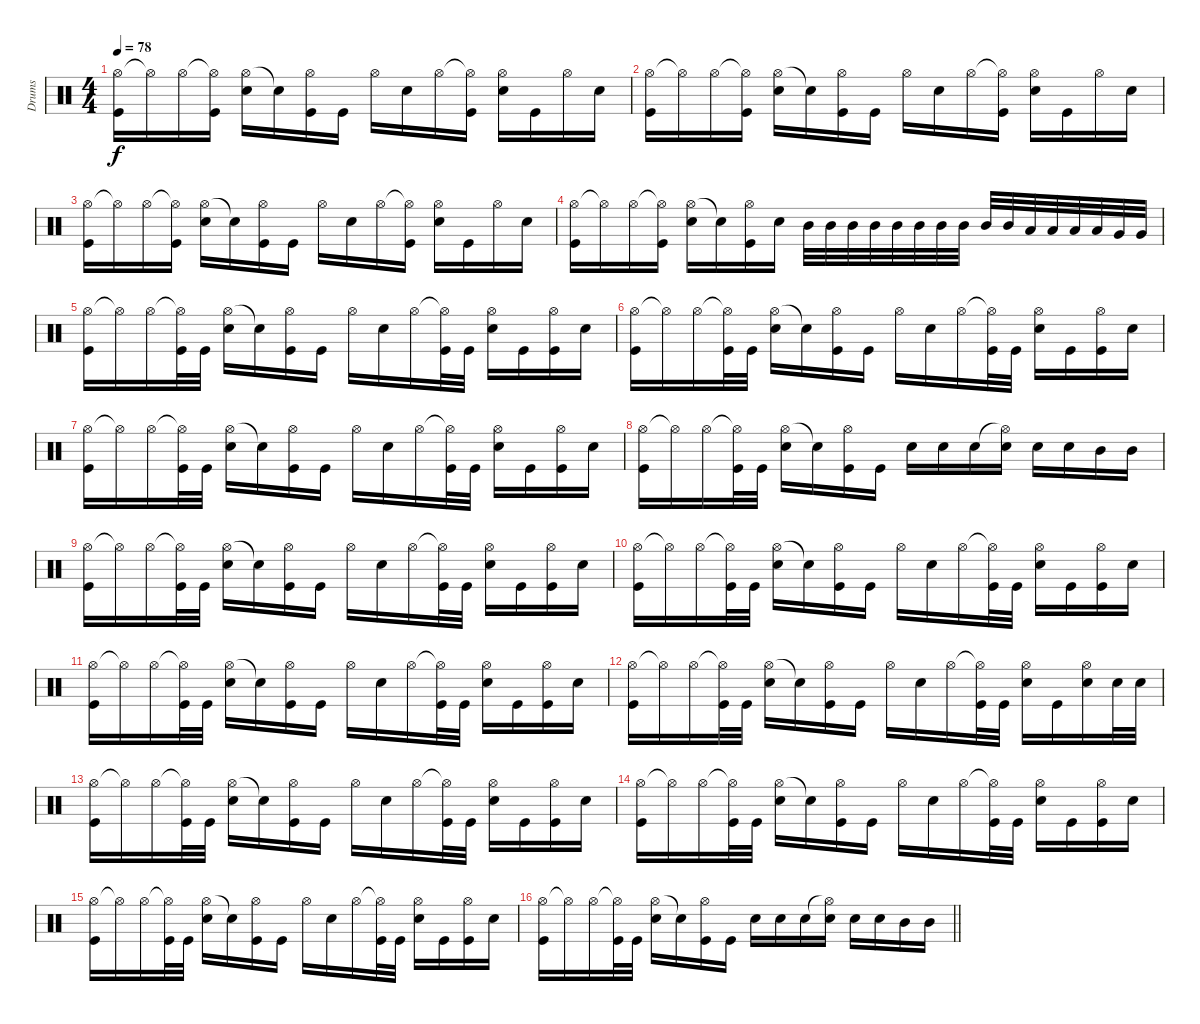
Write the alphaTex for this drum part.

\track ("Drums" "Drums") {instrument percussion}
\staff {score}
\articulation defaults
\ts (4 4)
\tempo 78
\clef neutral
\ks c
("Hi-Hat (open)" "Kick (hit)").16{dy f} "Hi-Hat (open)"{t}.16 "Hi-Hat (open)".16 ("Hi-Hat (open)"{t} "Kick (hit)").16 ("Hi-Hat (open)" "Electric Snare (hit)").16 "Snare (hit)"{t}.16 ("Hi-Hat (open)" "Kick (hit)").16 "Kick (hit)".16 "Hi-Hat (open)".16 "Electric Snare (hit)".16 "Hi-Hat (open)".16 ("Hi-Hat (open)"{t} "Kick (hit)").16 ("Hi-Hat (open)" "Electric Snare (hit)").16 "Kick (hit)".16 "Hi-Hat (open)".16 "Electric Snare (hit)".16 |
("Hi-Hat (open)" "Kick (hit)").16 "Hi-Hat (open)"{t}.16 "Hi-Hat (open)".16 ("Hi-Hat (open)"{t} "Kick (hit)").16 ("Hi-Hat (open)" "Electric Snare (hit)").16 "Snare (hit)"{t}.16 ("Hi-Hat (open)" "Kick (hit)").16 "Kick (hit)".16 "Hi-Hat (open)".16 "Electric Snare (hit)".16 "Hi-Hat (open)".16 ("Hi-Hat (open)"{t} "Kick (hit)").16 ("Hi-Hat (open)" "Electric Snare (hit)").16 "Kick (hit)".16 "Hi-Hat (open)".16 "Electric Snare (hit)".16 |
("Hi-Hat (open)" "Kick (hit)").16 "Hi-Hat (open)"{t}.16 "Hi-Hat (open)".16 ("Hi-Hat (open)"{t} "Kick (hit)").16 ("Hi-Hat (open)" "Electric Snare (hit)").16 "Snare (hit)"{t}.16 ("Hi-Hat (open)" "Kick (hit)").16 "Kick (hit)".16 "Hi-Hat (open)".16 "Electric Snare (hit)".16 "Hi-Hat (open)".16 ("Hi-Hat (open)"{t} "Kick (hit)").16 ("Hi-Hat (open)" "Electric Snare (hit)").16 "Kick (hit)".16 "Hi-Hat (open)".16 "Electric Snare (hit)".16 |
("Hi-Hat (open)" "Kick (hit)").16 "Hi-Hat (open)"{t}.16 "Hi-Hat (open)".16 ("Hi-Hat (open)"{t} "Kick (hit)").16 ("Hi-Hat (open)" "Electric Snare (hit)").16 "Snare (hit)"{t}.16 ("Hi-Hat (open)" "Kick (hit)").16 "Electric Snare (hit)".16 "Mid Tom (hit)".32 "Mid Tom (hit)".32 "Mid Tom (hit)".32 "Mid Tom (hit)".32 "Mid Tom (hit)".32 "Mid Tom (hit)".32 "Mid Tom (hit)".32 "Mid Tom (hit)".32 "Mid Tom (hit)".32 "Mid Tom (hit)".32 "Low Tom (hit)".32 "Low Tom (hit)".32 "Low Tom (hit)".32 "Low Tom (hit)".32 "Very Low Tom (hit)".32 "Very Low Tom (hit)".32 |
("Hi-Hat (open)" "Kick (hit)").16 "Hi-Hat (open)"{t}.16 "Hi-Hat (open)".16 ("Hi-Hat (open)"{t} "Kick (hit)").32 "Kick (hit)".32 ("Hi-Hat (open)" "Electric Snare (hit)").16 "Snare (hit)"{t}.16 ("Hi-Hat (open)" "Kick (hit)").16 "Kick (hit)".16 "Hi-Hat (open)".16 "Electric Snare (hit)".16 "Hi-Hat (open)".16 ("Hi-Hat (open)"{t} "Kick (hit)").32 "Kick (hit)".32 ("Hi-Hat (open)" "Electric Snare (hit)").16 "Kick (hit)".16 ("Hi-Hat (open)" "Kick (hit)").16 "Electric Snare (hit)".16 |
("Hi-Hat (open)" "Kick (hit)").16 "Hi-Hat (open)"{t}.16 "Hi-Hat (open)".16 ("Hi-Hat (open)"{t} "Kick (hit)").32 "Kick (hit)".32 ("Hi-Hat (open)" "Electric Snare (hit)").16 "Snare (hit)"{t}.16 ("Hi-Hat (open)" "Kick (hit)").16 "Kick (hit)".16 "Hi-Hat (open)".16 "Electric Snare (hit)".16 "Hi-Hat (open)".16 ("Hi-Hat (open)"{t} "Kick (hit)").32 "Kick (hit)".32 ("Hi-Hat (open)" "Electric Snare (hit)").16 "Kick (hit)".16 ("Hi-Hat (open)" "Kick (hit)").16 "Electric Snare (hit)".16 |
("Hi-Hat (open)" "Kick (hit)").16 "Hi-Hat (open)"{t}.16 "Hi-Hat (open)".16 ("Hi-Hat (open)"{t} "Kick (hit)").32 "Kick (hit)".32 ("Hi-Hat (open)" "Electric Snare (hit)").16 "Snare (hit)"{t}.16 ("Hi-Hat (open)" "Kick (hit)").16 "Kick (hit)".16 "Hi-Hat (open)".16 "Electric Snare (hit)".16 "Hi-Hat (open)".16 ("Hi-Hat (open)"{t} "Kick (hit)").32 "Kick (hit)".32 ("Hi-Hat (open)" "Electric Snare (hit)").16 "Kick (hit)".16 ("Hi-Hat (open)" "Kick (hit)").16 "Electric Snare (hit)".16 |
("Hi-Hat (open)" "Kick (hit)").16 "Hi-Hat (open)"{t}.16 "Hi-Hat (open)".16 ("Hi-Hat (open)"{t} "Kick (hit)").32 "Kick (hit)".32 ("Hi-Hat (open)" "Electric Snare (hit)").16 "Snare (hit)"{t}.16 ("Hi-Hat (open)" "Kick (hit)").16 "Kick (hit)".16 "Electric Snare (hit)".16 "Electric Snare (hit)".16 "Electric Snare (hit)".16 ("Hi-Hat (open)"{t} "Electric Snare (hit)").16 "Electric Snare (hit)".16 "Electric Snare (hit)".16 "Mid Tom (hit)".16 "Mid Tom (hit)".16 |
("Hi-Hat (open)" "Kick (hit)").16 "Hi-Hat (open)"{t}.16 "Hi-Hat (open)".16 ("Hi-Hat (open)"{t} "Kick (hit)").32 "Kick (hit)".32 ("Hi-Hat (open)" "Electric Snare (hit)").16 "Snare (hit)"{t}.16 ("Hi-Hat (open)" "Kick (hit)").16 "Kick (hit)".16 "Hi-Hat (open)".16 "Electric Snare (hit)".16 "Hi-Hat (open)".16 ("Hi-Hat (open)"{t} "Kick (hit)").32 "Kick (hit)".32 ("Hi-Hat (open)" "Electric Snare (hit)").16 "Kick (hit)".16 ("Hi-Hat (open)" "Kick (hit)").16 "Electric Snare (hit)".16 |
("Hi-Hat (open)" "Kick (hit)").16 "Hi-Hat (open)"{t}.16 "Hi-Hat (open)".16 ("Hi-Hat (open)"{t} "Kick (hit)").32 "Kick (hit)".32 ("Hi-Hat (open)" "Electric Snare (hit)").16 "Snare (hit)"{t}.16 ("Hi-Hat (open)" "Kick (hit)").16 "Kick (hit)".16 "Hi-Hat (open)".16 "Electric Snare (hit)".16 "Hi-Hat (open)".16 ("Hi-Hat (open)"{t} "Kick (hit)").32 "Kick (hit)".32 ("Hi-Hat (open)" "Electric Snare (hit)").16 "Kick (hit)".16 ("Hi-Hat (open)" "Kick (hit)").16 "Electric Snare (hit)".16 |
("Hi-Hat (open)" "Kick (hit)").16 "Hi-Hat (open)"{t}.16 "Hi-Hat (open)".16 ("Hi-Hat (open)"{t} "Kick (hit)").32 "Kick (hit)".32 ("Hi-Hat (open)" "Electric Snare (hit)").16 "Snare (hit)"{t}.16 ("Hi-Hat (open)" "Kick (hit)").16 "Kick (hit)".16 "Hi-Hat (open)".16 "Electric Snare (hit)".16 "Hi-Hat (open)".16 ("Hi-Hat (open)"{t} "Kick (hit)").32 "Kick (hit)".32 ("Hi-Hat (open)" "Electric Snare (hit)").16 "Kick (hit)".16 ("Hi-Hat (open)" "Kick (hit)").16 "Electric Snare (hit)".16 |
("Hi-Hat (open)" "Kick (hit)").16 "Hi-Hat (open)"{t}.16 "Hi-Hat (open)".16 ("Hi-Hat (open)"{t} "Kick (hit)").32 "Kick (hit)".32 ("Hi-Hat (open)" "Electric Snare (hit)").16 "Snare (hit)"{t}.16 ("Hi-Hat (open)" "Kick (hit)").16 "Kick (hit)".16 "Hi-Hat (open)".16 "Electric Snare (hit)".16 "Hi-Hat (open)".16 ("Hi-Hat (open)"{t} "Kick (hit)").32 "Kick (hit)".32 ("Hi-Hat (open)" "Electric Snare (hit)").16 "Kick (hit)".16 ("Hi-Hat (open)" "Electric Snare (hit)").16 "Electric Snare (hit)".32 "Electric Snare (hit)".32 |
("Hi-Hat (open)" "Kick (hit)").16 "Hi-Hat (open)"{t}.16 "Hi-Hat (open)".16 ("Hi-Hat (open)"{t} "Kick (hit)").32 "Kick (hit)".32 ("Hi-Hat (open)" "Electric Snare (hit)").16 "Snare (hit)"{t}.16 ("Hi-Hat (open)" "Kick (hit)").16 "Kick (hit)".16 "Hi-Hat (open)".16 "Electric Snare (hit)".16 "Hi-Hat (open)".16 ("Hi-Hat (open)"{t} "Kick (hit)").32 "Kick (hit)".32 ("Hi-Hat (open)" "Electric Snare (hit)").16 "Kick (hit)".16 ("Hi-Hat (open)" "Kick (hit)").16 "Electric Snare (hit)".16 |
("Hi-Hat (open)" "Kick (hit)").16 "Hi-Hat (open)"{t}.16 "Hi-Hat (open)".16 ("Hi-Hat (open)"{t} "Kick (hit)").32 "Kick (hit)".32 ("Hi-Hat (open)" "Electric Snare (hit)").16 "Snare (hit)"{t}.16 ("Hi-Hat (open)" "Kick (hit)").16 "Kick (hit)".16 "Hi-Hat (open)".16 "Electric Snare (hit)".16 "Hi-Hat (open)".16 ("Hi-Hat (open)"{t} "Kick (hit)").32 "Kick (hit)".32 ("Hi-Hat (open)" "Electric Snare (hit)").16 "Kick (hit)".16 ("Hi-Hat (open)" "Kick (hit)").16 "Electric Snare (hit)".16 |
("Hi-Hat (open)" "Kick (hit)").16 "Hi-Hat (open)"{t}.16 "Hi-Hat (open)".16 ("Hi-Hat (open)"{t} "Kick (hit)").32 "Kick (hit)".32 ("Hi-Hat (open)" "Electric Snare (hit)").16 "Snare (hit)"{t}.16 ("Hi-Hat (open)" "Kick (hit)").16 "Kick (hit)".16 "Hi-Hat (open)".16 "Electric Snare (hit)".16 "Hi-Hat (open)".16 ("Hi-Hat (open)"{t} "Kick (hit)").32 "Kick (hit)".32 ("Hi-Hat (open)" "Electric Snare (hit)").16 "Kick (hit)".16 ("Hi-Hat (open)" "Kick (hit)").16 "Electric Snare (hit)".16 |
\barLineRight lightlight
("Hi-Hat (open)" "Kick (hit)").16 "Hi-Hat (open)"{t}.16 "Hi-Hat (open)".16 ("Hi-Hat (open)"{t} "Kick (hit)").32 "Kick (hit)".32 ("Hi-Hat (open)" "Electric Snare (hit)").16 "Snare (hit)"{t}.16 ("Hi-Hat (open)" "Kick (hit)").16 "Kick (hit)".16 "Electric Snare (hit)".16 "Electric Snare (hit)".16 "Electric Snare (hit)".16 ("Hi-Hat (open)"{t} "Electric Snare (hit)").16 "Electric Snare (hit)".16 "Electric Snare (hit)".16 "Mid Tom (hit)".16 "Mid Tom (hit)".16
